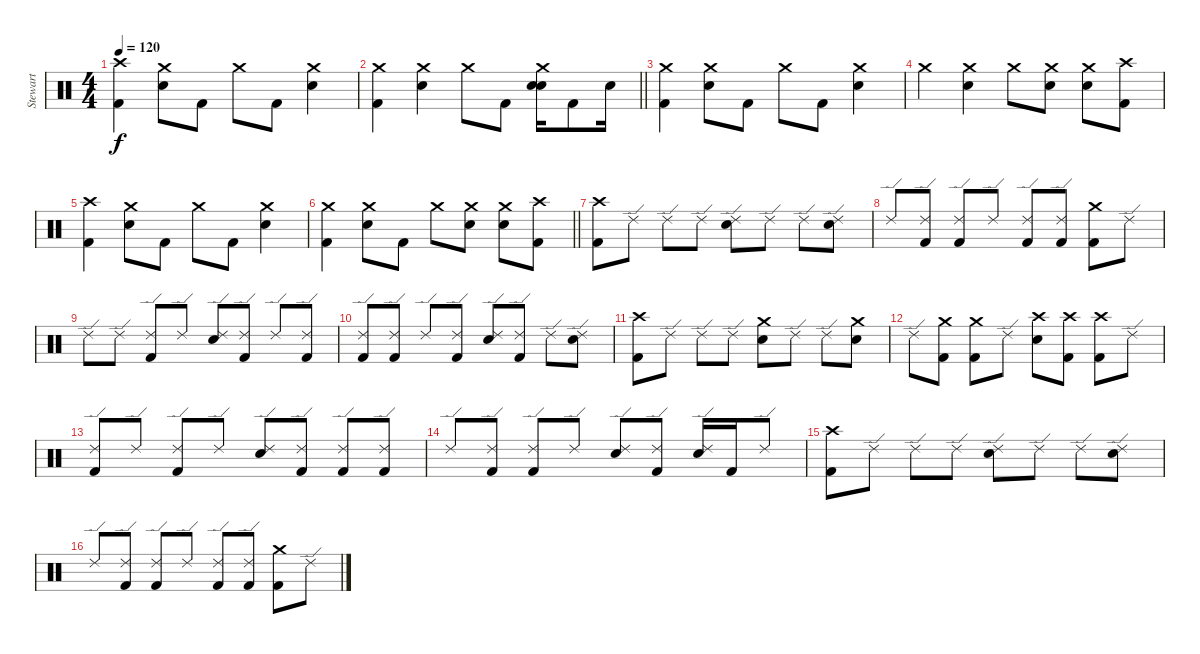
\track ("Stewart" "Stewart") {instrument percussion}
\staff {score}
\articulation defaults
\ts (4 4)
\tempo 120
\clef neutral
\ks c
("Crash high (hit)" "Kick (hit) 2").4{dy f} ("Crash medium (hit)" "Electric Snare (hit)").8 "Kick (hit) 2".8 "Crash medium (hit)".8 "Kick (hit) 2".8 ("Crash medium (hit)" "Electric Snare (hit)").4 |
\barLineRight lightlight
("Crash medium (hit)" "Kick (hit) 2").4 ("Crash medium (hit)" "Electric Snare (hit)").4 "Crash medium (hit)".8 "Kick (hit) 2".8 ("Crash medium (hit)" "Electric Snare (hit)" "Electric Snare (hit)").16 "Kick (hit) 2".8 "Electric Snare (hit)".16 |
("Crash medium (hit)" "Kick (hit) 2").4 ("Crash medium (hit)" "Electric Snare (hit)").8 "Kick (hit) 2".8 "Crash medium (hit)".8 "Kick (hit) 2".8 ("Crash medium (hit)" "Electric Snare (hit)").4 |
"Crash medium (hit)".4 ("Crash medium (hit)" "Electric Snare (hit)").4 "Crash medium (hit)".8 ("Crash medium (hit)" "Electric Snare (hit)").8 ("Crash medium (hit)" "Electric Snare (hit)").8 ("Crash high (hit)" "Kick (hit) 2").8 |
("Crash high (hit)" "Kick (hit) 2").4 ("Crash medium (hit)" "Electric Snare (hit)").8 "Kick (hit) 2".8 "Crash medium (hit)".8 "Kick (hit) 2".8 ("Crash medium (hit)" "Electric Snare (hit)").4 |
\barLineRight lightlight
("Crash medium (hit)" "Kick (hit) 2").4 ("Crash medium (hit)" "Electric Snare (hit)").8 "Kick (hit) 2".8 "Crash medium (hit)".8 ("Crash medium (hit)" "Electric Snare (hit)").8 ("Crash medium (hit)" "Electric Snare (hit)").8 ("Crash high (hit)" "Kick (hit) 2").8 |
("Crash high (hit)" "Kick (hit) 2").8 "Ride (edge) 2".8 "Ride (edge) 2".8 "Ride (edge) 2".8 ("Ride (edge) 2" "Electric Snare (hit)").8 "Ride (edge) 2".8 "Ride (edge) 2".8 ("Ride (edge) 2" "Electric Snare (hit)").8 |
"Ride (edge) 2".8 ("Ride (edge) 2" "Kick (hit) 2").8 ("Ride (edge) 2" "Kick (hit) 2").8 "Ride (edge) 2".8 ("Ride (edge) 2" "Kick (hit) 2").8 ("Ride (edge) 2" "Kick (hit) 2").8 ("Crash medium (hit)" "Kick (hit) 2").8 "Ride (edge) 2".8 |
"Ride (edge) 2".8 "Ride (edge) 2".8 ("Ride (edge) 2" "Kick (hit) 2").8 "Ride (edge) 2".8 ("Ride (edge) 2" "Electric Snare (hit)").8 ("Ride (edge) 2" "Kick (hit) 2").8 "Ride (edge) 2".8 ("Ride (edge) 2" "Kick (hit) 2").8 |
("Ride (edge) 2" "Kick (hit) 2").8 ("Ride (edge) 2" "Kick (hit) 2").8 "Ride (edge) 2".8 ("Ride (edge) 2" "Kick (hit) 2").8 ("Ride (edge) 2" "Electric Snare (hit)").8 ("Ride (edge) 2" "Kick (hit) 2").8 "Ride (edge) 2".8 ("Ride (edge) 2" "Electric Snare (hit)").8 |
("Crash high (hit)" "Kick (hit) 2").8 "Ride (edge) 2".8 "Ride (edge) 2".8 "Ride (edge) 2".8 ("Crash medium (hit)" "Electric Snare (hit)").8 "Ride (edge) 2".8 "Ride (edge) 2".8 ("Crash medium (hit)" "Electric Snare (hit)").8 |
"Ride (edge) 2".8 ("Crash medium (hit)" "Kick (hit) 2").8 ("Crash medium (hit)" "Kick (hit) 2").8 "Ride (edge) 2".8 ("Crash high (hit)" "Electric Snare (hit)").8 ("Crash high (hit)" "Kick (hit) 2").8 ("Crash high (hit)" "Kick (hit) 2").8 "Ride (edge) 2".8 |
("Ride (edge) 2" "Kick (hit) 2").8 "Ride (edge) 2".8 ("Ride (edge) 2" "Kick (hit) 2").8 "Ride (edge) 2".8 ("Ride (edge) 2" "Electric Snare (hit)").8 ("Ride (edge) 2" "Kick (hit) 2").8 ("Ride (edge) 2" "Kick (hit) 2").8 ("Ride (edge) 2" "Kick (hit) 2").8 |
"Ride (edge) 2".8 ("Ride (edge) 2" "Kick (hit) 2").8 ("Ride (edge) 2" "Kick (hit) 2").8 "Ride (edge) 2".8 ("Ride (edge) 2" "Electric Snare (hit)").8 ("Ride (edge) 2" "Kick (hit) 2").8 ("Ride (edge) 2" "Electric Snare (hit)").16 "Kick (hit) 2".16 "Ride (edge) 2".8 |
("Crash high (hit)" "Kick (hit) 2").8 "Ride (edge) 2".8 "Ride (edge) 2".8 "Ride (edge) 2".8 ("Ride (edge) 2" "Electric Snare (hit)").8 "Ride (edge) 2".8 "Ride (edge) 2".8 ("Ride (edge) 2" "Electric Snare (hit)").8 |
"Ride (edge) 2".8 ("Ride (edge) 2" "Kick (hit) 2").8 ("Ride (edge) 2" "Kick (hit) 2").8 "Ride (edge) 2".8 ("Ride (edge) 2" "Kick (hit) 2").8 ("Ride (edge) 2" "Kick (hit) 2").8 ("Crash medium (hit)" "Kick (hit) 2").8 "Ride (edge) 2".8
